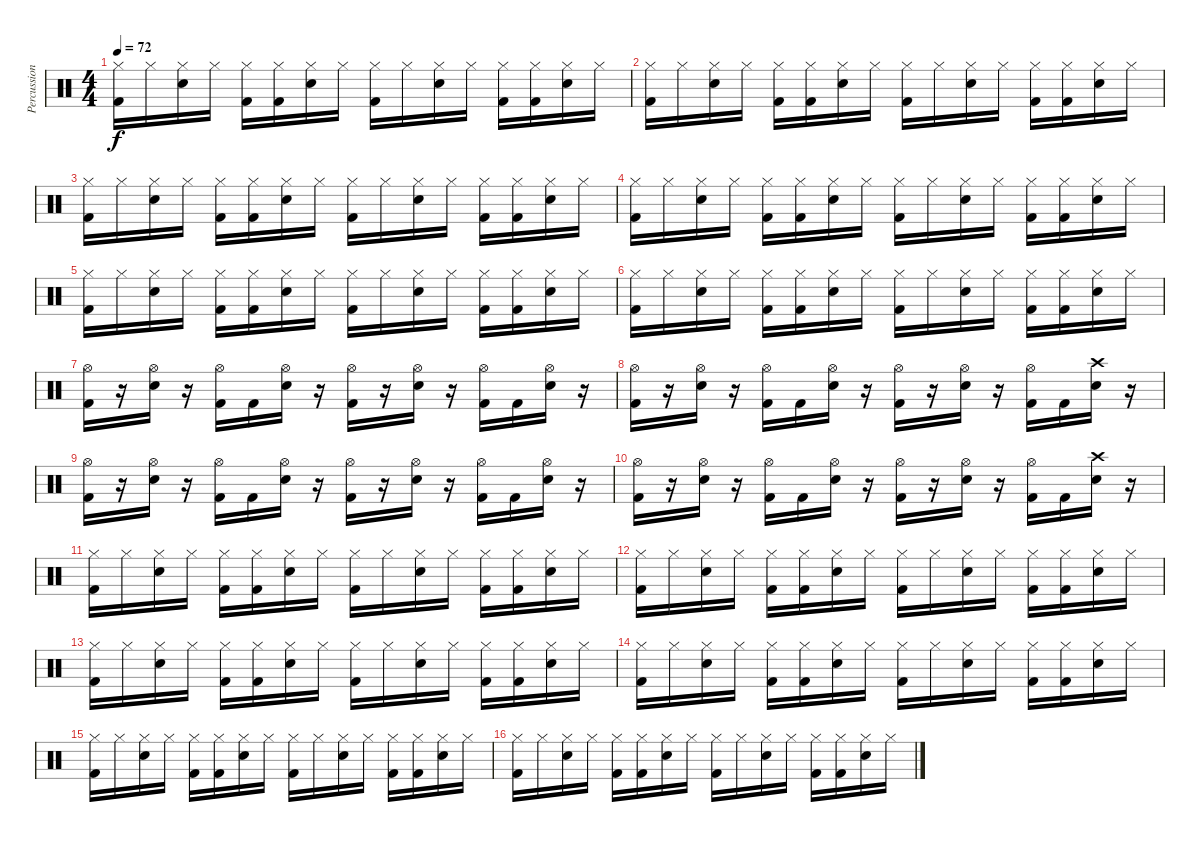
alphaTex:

\track ("Percussion" "Percussion") {instrument percussion}
\staff {score}
\articulation defaults
\ts (4 4)
\tempo 72
\clef neutral
\ks c
("Hi-Hat (closed)" "Kick (hit) 2").16{dy f} "Hi-Hat (closed)".16 ("Hi-Hat (closed)" "Snare (hit) 2").16 "Hi-Hat (closed)".16 ("Hi-Hat (closed)" "Kick (hit) 2").16 ("Hi-Hat (closed)" "Kick (hit) 2").16 ("Hi-Hat (closed)" "Snare (hit) 2").16 "Hi-Hat (closed)".16 ("Hi-Hat (closed)" "Kick (hit) 2").16 "Hi-Hat (closed)".16 ("Hi-Hat (closed)" "Snare (hit) 2").16 "Hi-Hat (closed)".16 ("Hi-Hat (closed)" "Kick (hit) 2").16 ("Hi-Hat (closed)" "Kick (hit) 2").16 ("Hi-Hat (closed)" "Snare (hit) 2").16 "Hi-Hat (closed)".16 |
("Hi-Hat (closed)" "Kick (hit) 2").16 "Hi-Hat (closed)".16 ("Hi-Hat (closed)" "Snare (hit) 2").16 "Hi-Hat (closed)".16 ("Hi-Hat (closed)" "Kick (hit) 2").16 ("Hi-Hat (closed)" "Kick (hit) 2").16 ("Hi-Hat (closed)" "Snare (hit) 2").16 "Hi-Hat (closed)".16 ("Hi-Hat (closed)" "Kick (hit) 2").16 "Hi-Hat (closed)".16 ("Hi-Hat (closed)" "Snare (hit) 2").16 "Hi-Hat (closed)".16 ("Hi-Hat (closed)" "Kick (hit) 2").16 ("Hi-Hat (closed)" "Kick (hit) 2").16 ("Hi-Hat (closed)" "Snare (hit) 2").16 "Hi-Hat (closed)".16 |
("Hi-Hat (closed)" "Kick (hit) 2").16 "Hi-Hat (closed)".16 ("Hi-Hat (closed)" "Snare (hit) 2").16 "Hi-Hat (closed)".16 ("Hi-Hat (closed)" "Kick (hit) 2").16 ("Hi-Hat (closed)" "Kick (hit) 2").16 ("Hi-Hat (closed)" "Snare (hit) 2").16 "Hi-Hat (closed)".16 ("Hi-Hat (closed)" "Kick (hit) 2").16 "Hi-Hat (closed)".16 ("Hi-Hat (closed)" "Snare (hit) 2").16 "Hi-Hat (closed)".16 ("Hi-Hat (closed)" "Kick (hit) 2").16 ("Hi-Hat (closed)" "Kick (hit) 2").16 ("Hi-Hat (closed)" "Snare (hit) 2").16 "Hi-Hat (closed)".16 |
("Hi-Hat (closed)" "Kick (hit) 2").16 "Hi-Hat (closed)".16 ("Hi-Hat (closed)" "Snare (hit) 2").16 "Hi-Hat (closed)".16 ("Hi-Hat (closed)" "Kick (hit) 2").16 ("Hi-Hat (closed)" "Kick (hit) 2").16 ("Hi-Hat (closed)" "Snare (hit) 2").16 "Hi-Hat (closed)".16 ("Hi-Hat (closed)" "Kick (hit) 2").16 "Hi-Hat (closed)".16 ("Hi-Hat (closed)" "Snare (hit) 2").16 "Hi-Hat (closed)".16 ("Hi-Hat (closed)" "Kick (hit) 2").16 ("Hi-Hat (closed)" "Kick (hit) 2").16 ("Hi-Hat (closed)" "Snare (hit) 2").16 "Hi-Hat (closed)".16 |
("Hi-Hat (closed)" "Kick (hit) 2").16 "Hi-Hat (closed)".16 ("Hi-Hat (closed)" "Snare (hit) 2").16 "Hi-Hat (closed)".16 ("Hi-Hat (closed)" "Kick (hit) 2").16 ("Hi-Hat (closed)" "Kick (hit) 2").16 ("Hi-Hat (closed)" "Snare (hit) 2").16 "Hi-Hat (closed)".16 ("Hi-Hat (closed)" "Kick (hit) 2").16 "Hi-Hat (closed)".16 ("Hi-Hat (closed)" "Snare (hit) 2").16 "Hi-Hat (closed)".16 ("Hi-Hat (closed)" "Kick (hit) 2").16 ("Hi-Hat (closed)" "Kick (hit) 2").16 ("Hi-Hat (closed)" "Snare (hit) 2").16 "Hi-Hat (closed)".16 |
("Hi-Hat (closed)" "Kick (hit) 2").16 "Hi-Hat (closed)".16 ("Hi-Hat (closed)" "Snare (hit) 2").16 "Hi-Hat (closed)".16 ("Hi-Hat (closed)" "Kick (hit) 2").16 ("Hi-Hat (closed)" "Kick (hit) 2").16 ("Hi-Hat (closed)" "Snare (hit) 2").16 "Hi-Hat (closed)".16 ("Hi-Hat (closed)" "Kick (hit) 2").16 "Hi-Hat (closed)".16 ("Hi-Hat (closed)" "Snare (hit) 2").16 "Hi-Hat (closed)".16 ("Hi-Hat (closed)" "Kick (hit) 2").16 ("Hi-Hat (closed)" "Kick (hit) 2").16 ("Hi-Hat (closed)" "Snare (hit) 2").16 "Hi-Hat (closed)".16 |
("Hi-Hat (open)" "Kick (hit) 2").16 r.16 ("Hi-Hat (open)" "Snare (hit) 2").16 r.16 ("Hi-Hat (open)" "Kick (hit) 2").16 "Kick (hit) 2".16 ("Hi-Hat (open)" "Snare (hit) 2").16 r.16 ("Hi-Hat (open)" "Kick (hit) 2").16 r.16 ("Hi-Hat (open)" "Snare (hit) 2").16 r.16 ("Hi-Hat (open)" "Kick (hit) 2").16 "Kick (hit) 2".16 ("Hi-Hat (open)" "Snare (hit) 2").16 r.16 |
("Hi-Hat (open)" "Kick (hit) 2").16 r.16 ("Hi-Hat (open)" "Snare (hit) 2").16 r.16 ("Hi-Hat (open)" "Kick (hit) 2").16 "Kick (hit) 2".16 ("Hi-Hat (open)" "Snare (hit) 2").16 r.16 ("Hi-Hat (open)" "Kick (hit) 2").16 r.16 ("Hi-Hat (open)" "Snare (hit) 2").16 r.16 ("Hi-Hat (open)" "Kick (hit) 2").16 "Kick (hit) 2".16 ("Crash high (hit)" "Snare (hit) 2").16 r.16 |
("Hi-Hat (open)" "Kick (hit) 2").16 r.16 ("Hi-Hat (open)" "Snare (hit) 2").16 r.16 ("Hi-Hat (open)" "Kick (hit) 2").16 "Kick (hit) 2".16 ("Hi-Hat (open)" "Snare (hit) 2").16 r.16 ("Hi-Hat (open)" "Kick (hit) 2").16 r.16 ("Hi-Hat (open)" "Snare (hit) 2").16 r.16 ("Hi-Hat (open)" "Kick (hit) 2").16 "Kick (hit) 2".16 ("Hi-Hat (open)" "Snare (hit) 2").16 r.16 |
("Hi-Hat (open)" "Kick (hit) 2").16 r.16 ("Hi-Hat (open)" "Snare (hit) 2").16 r.16 ("Hi-Hat (open)" "Kick (hit) 2").16 "Kick (hit) 2".16 ("Hi-Hat (open)" "Snare (hit) 2").16 r.16 ("Hi-Hat (open)" "Kick (hit) 2").16 r.16 ("Hi-Hat (open)" "Snare (hit) 2").16 r.16 ("Hi-Hat (open)" "Kick (hit) 2").16 "Kick (hit) 2".16 ("Crash high (hit)" "Snare (hit) 2").16 r.16 |
("Hi-Hat (closed)" "Kick (hit) 2").16 "Hi-Hat (closed)".16 ("Hi-Hat (closed)" "Snare (hit) 2").16 "Hi-Hat (closed)".16 ("Hi-Hat (closed)" "Kick (hit) 2").16 ("Hi-Hat (closed)" "Kick (hit) 2").16 ("Hi-Hat (closed)" "Snare (hit) 2").16 "Hi-Hat (closed)".16 ("Hi-Hat (closed)" "Kick (hit) 2").16 "Hi-Hat (closed)".16 ("Hi-Hat (closed)" "Snare (hit) 2").16 "Hi-Hat (closed)".16 ("Hi-Hat (closed)" "Kick (hit) 2").16 ("Hi-Hat (closed)" "Kick (hit) 2").16 ("Hi-Hat (closed)" "Snare (hit) 2").16 "Hi-Hat (closed)".16 |
("Hi-Hat (closed)" "Kick (hit) 2").16 "Hi-Hat (closed)".16 ("Hi-Hat (closed)" "Snare (hit) 2").16 "Hi-Hat (closed)".16 ("Hi-Hat (closed)" "Kick (hit) 2").16 ("Hi-Hat (closed)" "Kick (hit) 2").16 ("Hi-Hat (closed)" "Snare (hit) 2").16 "Hi-Hat (closed)".16 ("Hi-Hat (closed)" "Kick (hit) 2").16 "Hi-Hat (closed)".16 ("Hi-Hat (closed)" "Snare (hit) 2").16 "Hi-Hat (closed)".16 ("Hi-Hat (closed)" "Kick (hit) 2").16 ("Hi-Hat (closed)" "Kick (hit) 2").16 ("Hi-Hat (closed)" "Snare (hit) 2").16 "Hi-Hat (closed)".16 |
("Hi-Hat (closed)" "Kick (hit) 2").16 "Hi-Hat (closed)".16 ("Hi-Hat (closed)" "Snare (hit) 2").16 "Hi-Hat (closed)".16 ("Hi-Hat (closed)" "Kick (hit) 2").16 ("Hi-Hat (closed)" "Kick (hit) 2").16 ("Hi-Hat (closed)" "Snare (hit) 2").16 "Hi-Hat (closed)".16 ("Hi-Hat (closed)" "Kick (hit) 2").16 "Hi-Hat (closed)".16 ("Hi-Hat (closed)" "Snare (hit) 2").16 "Hi-Hat (closed)".16 ("Hi-Hat (closed)" "Kick (hit) 2").16 ("Hi-Hat (closed)" "Kick (hit) 2").16 ("Hi-Hat (closed)" "Snare (hit) 2").16 "Hi-Hat (closed)".16 |
("Hi-Hat (closed)" "Kick (hit) 2").16 "Hi-Hat (closed)".16 ("Hi-Hat (closed)" "Snare (hit) 2").16 "Hi-Hat (closed)".16 ("Hi-Hat (closed)" "Kick (hit) 2").16 ("Hi-Hat (closed)" "Kick (hit) 2").16 ("Hi-Hat (closed)" "Snare (hit) 2").16 "Hi-Hat (closed)".16 ("Hi-Hat (closed)" "Kick (hit) 2").16 "Hi-Hat (closed)".16 ("Hi-Hat (closed)" "Snare (hit) 2").16 "Hi-Hat (closed)".16 ("Hi-Hat (closed)" "Kick (hit) 2").16 ("Hi-Hat (closed)" "Kick (hit) 2").16 ("Hi-Hat (closed)" "Snare (hit) 2").16 "Hi-Hat (closed)".16 |
("Hi-Hat (closed)" "Kick (hit) 2").16 "Hi-Hat (closed)".16 ("Hi-Hat (closed)" "Snare (hit) 2").16 "Hi-Hat (closed)".16 ("Hi-Hat (closed)" "Kick (hit) 2").16 ("Hi-Hat (closed)" "Kick (hit) 2").16 ("Hi-Hat (closed)" "Snare (hit) 2").16 "Hi-Hat (closed)".16 ("Hi-Hat (closed)" "Kick (hit) 2").16 "Hi-Hat (closed)".16 ("Hi-Hat (closed)" "Snare (hit) 2").16 "Hi-Hat (closed)".16 ("Hi-Hat (closed)" "Kick (hit) 2").16 ("Hi-Hat (closed)" "Kick (hit) 2").16 ("Hi-Hat (closed)" "Snare (hit) 2").16 "Hi-Hat (closed)".16 |
("Hi-Hat (closed)" "Kick (hit) 2").16 "Hi-Hat (closed)".16 ("Hi-Hat (closed)" "Snare (hit) 2").16 "Hi-Hat (closed)".16 ("Hi-Hat (closed)" "Kick (hit) 2").16 ("Hi-Hat (closed)" "Kick (hit) 2").16 ("Hi-Hat (closed)" "Snare (hit) 2").16 "Hi-Hat (closed)".16 ("Hi-Hat (closed)" "Kick (hit) 2").16 "Hi-Hat (closed)".16 ("Hi-Hat (closed)" "Snare (hit) 2").16 "Hi-Hat (closed)".16 ("Hi-Hat (closed)" "Kick (hit) 2").16 ("Hi-Hat (closed)" "Kick (hit) 2").16 ("Hi-Hat (closed)" "Snare (hit) 2").16 "Hi-Hat (closed)".16
